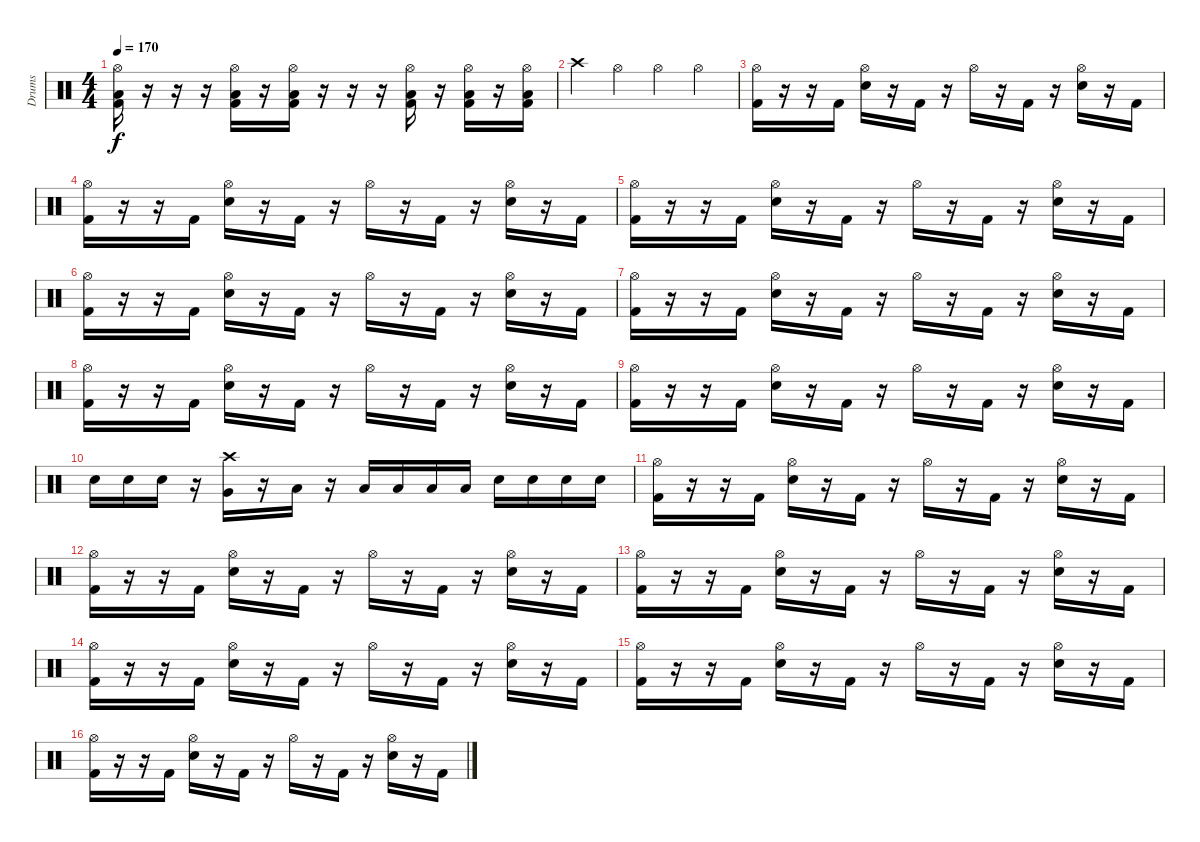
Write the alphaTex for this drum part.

\track ("Drums" "Drums") {instrument percussion}
\staff {score}
\articulation defaults
\ts (4 4)
\tempo 170
\clef neutral
\ks c
("Hi-Hat (open)" "Low Floor Tom (hit)" "Kick (hit) 2").16{dy f} r.16 r.16 r.16 ("Hi-Hat (open)" "Low Floor Tom (hit)" "Kick (hit) 2").16 r.16 ("Hi-Hat (open)" "Low Floor Tom (hit)" "Kick (hit) 2").16 r.16 r.16 r.16 ("Hi-Hat (open)" "Low Floor Tom (hit)" "Kick (hit) 2").16 r.16 ("Hi-Hat (open)" "Low Floor Tom (hit)" "Kick (hit) 2").16 r.16 ("Hi-Hat (open)" "Low Floor Tom (hit)" "Kick (hit) 2").16 |
"Crash high (hit)".4 "Hi-Hat (open)".4 "Hi-Hat (open)".4 "Hi-Hat (open)".4 |
("Hi-Hat (open)" "Kick (hit) 2").16 r.16 r.16 "Kick (hit) 2".16 ("Hi-Hat (open)" "Electric Snare (hit)").16 r.16 "Kick (hit) 2".16 r.16 "Hi-Hat (open)".16 r.16 "Kick (hit) 2".16 r.16 ("Hi-Hat (open)" "Electric Snare (hit)").16 r.16 "Kick (hit) 2".16 |
("Hi-Hat (open)" "Kick (hit) 2").16 r.16 r.16 "Kick (hit) 2".16 ("Hi-Hat (open)" "Electric Snare (hit)").16 r.16 "Kick (hit) 2".16 r.16 "Hi-Hat (open)".16 r.16 "Kick (hit) 2".16 r.16 ("Hi-Hat (open)" "Electric Snare (hit)").16 r.16 "Kick (hit) 2".16 |
("Hi-Hat (open)" "Kick (hit) 2").16 r.16 r.16 "Kick (hit) 2".16 ("Hi-Hat (open)" "Electric Snare (hit)").16 r.16 "Kick (hit) 2".16 r.16 "Hi-Hat (open)".16 r.16 "Kick (hit) 2".16 r.16 ("Hi-Hat (open)" "Electric Snare (hit)").16 r.16 "Kick (hit) 2".16 |
("Hi-Hat (open)" "Kick (hit) 2").16 r.16 r.16 "Kick (hit) 2".16 ("Hi-Hat (open)" "Electric Snare (hit)").16 r.16 "Kick (hit) 2".16 r.16 "Hi-Hat (open)".16 r.16 "Kick (hit) 2".16 r.16 ("Hi-Hat (open)" "Electric Snare (hit)").16 r.16 "Kick (hit) 2".16 |
("Hi-Hat (open)" "Kick (hit) 2").16 r.16 r.16 "Kick (hit) 2".16 ("Hi-Hat (open)" "Electric Snare (hit)").16 r.16 "Kick (hit) 2".16 r.16 "Hi-Hat (open)".16 r.16 "Kick (hit) 2".16 r.16 ("Hi-Hat (open)" "Electric Snare (hit)").16 r.16 "Kick (hit) 2".16 |
("Hi-Hat (open)" "Kick (hit) 2").16 r.16 r.16 "Kick (hit) 2".16 ("Hi-Hat (open)" "Electric Snare (hit)").16 r.16 "Kick (hit) 2".16 r.16 "Hi-Hat (open)".16 r.16 "Kick (hit) 2".16 r.16 ("Hi-Hat (open)" "Electric Snare (hit)").16 r.16 "Kick (hit) 2".16 |
("Hi-Hat (open)" "Kick (hit) 2").16 r.16 r.16 "Kick (hit) 2".16 ("Hi-Hat (open)" "Electric Snare (hit)").16 r.16 "Kick (hit) 2".16 r.16 "Hi-Hat (open)".16 r.16 "Kick (hit) 2".16 r.16 ("Hi-Hat (open)" "Electric Snare (hit)").16 r.16 "Kick (hit) 2".16 |
"Electric Snare (hit)".16 "Electric Snare (hit)".16 "Electric Snare (hit)".16 r.16 ("Crash high (hit)" "Very Low Tom (hit)").16 r.16 "Low Tom (hit)".16 r.16 "Low Tom (hit)".16 "Low Tom (hit)".16 "Low Tom (hit)".16 "Low Tom (hit)".16 "Electric Snare (hit)".16 "Electric Snare (hit)".16 "Electric Snare (hit)".16 "Electric Snare (hit)".16 |
("Hi-Hat (open)" "Kick (hit) 2").16 r.16 r.16 "Kick (hit) 2".16 ("Hi-Hat (open)" "Electric Snare (hit)").16 r.16 "Kick (hit) 2".16 r.16 "Hi-Hat (open)".16 r.16 "Kick (hit) 2".16 r.16 ("Hi-Hat (open)" "Electric Snare (hit)").16 r.16 "Kick (hit) 2".16 |
("Hi-Hat (open)" "Kick (hit) 2").16 r.16 r.16 "Kick (hit) 2".16 ("Hi-Hat (open)" "Electric Snare (hit)").16 r.16 "Kick (hit) 2".16 r.16 "Hi-Hat (open)".16 r.16 "Kick (hit) 2".16 r.16 ("Hi-Hat (open)" "Electric Snare (hit)").16 r.16 "Kick (hit) 2".16 |
("Hi-Hat (open)" "Kick (hit) 2").16 r.16 r.16 "Kick (hit) 2".16 ("Hi-Hat (open)" "Electric Snare (hit)").16 r.16 "Kick (hit) 2".16 r.16 "Hi-Hat (open)".16 r.16 "Kick (hit) 2".16 r.16 ("Hi-Hat (open)" "Electric Snare (hit)").16 r.16 "Kick (hit) 2".16 |
("Hi-Hat (open)" "Kick (hit) 2").16 r.16 r.16 "Kick (hit) 2".16 ("Hi-Hat (open)" "Electric Snare (hit)").16 r.16 "Kick (hit) 2".16 r.16 "Hi-Hat (open)".16 r.16 "Kick (hit) 2".16 r.16 ("Hi-Hat (open)" "Electric Snare (hit)").16 r.16 "Kick (hit) 2".16 |
("Hi-Hat (open)" "Kick (hit) 2").16 r.16 r.16 "Kick (hit) 2".16 ("Hi-Hat (open)" "Electric Snare (hit)").16 r.16 "Kick (hit) 2".16 r.16 "Hi-Hat (open)".16 r.16 "Kick (hit) 2".16 r.16 ("Hi-Hat (open)" "Electric Snare (hit)").16 r.16 "Kick (hit) 2".16 |
("Hi-Hat (open)" "Kick (hit) 2").16 r.16 r.16 "Kick (hit) 2".16 ("Hi-Hat (open)" "Electric Snare (hit)").16 r.16 "Kick (hit) 2".16 r.16 "Hi-Hat (open)".16 r.16 "Kick (hit) 2".16 r.16 ("Hi-Hat (open)" "Electric Snare (hit)").16 r.16 "Kick (hit) 2".16
